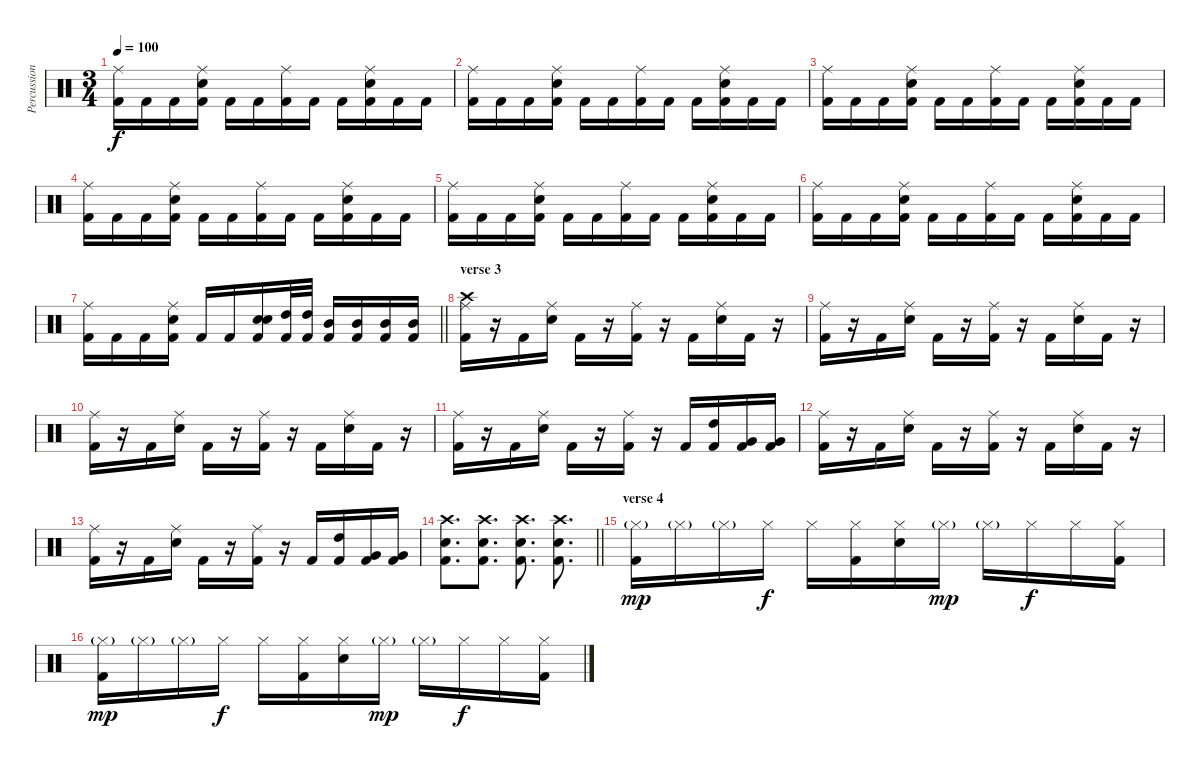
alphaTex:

\track ("Percussions" "Percussion") {instrument percussion}
\staff {score}
\articulation defaults
\ts (3 4)
\tempo 100
\clef neutral
\ks c
("Ride (middle)" "Kick (hit) 2").16{dy f} "Kick (hit) 2".16 "Kick (hit) 2".16 ("Ride (middle)" "Electric Snare (hit)" "Kick (hit) 2").16 "Kick (hit) 2".16 "Kick (hit) 2".16 ("Ride (middle)" "Kick (hit) 2").16 "Kick (hit) 2".16 "Kick (hit) 2".16 ("Ride (middle)" "Electric Snare (hit)" "Kick (hit) 2").16 "Kick (hit) 2".16 "Kick (hit) 2".16 |
("Ride (middle)" "Kick (hit) 2").16 "Kick (hit) 2".16 "Kick (hit) 2".16 ("Ride (middle)" "Electric Snare (hit)" "Kick (hit) 2").16 "Kick (hit) 2".16 "Kick (hit) 2".16 ("Ride (middle)" "Kick (hit) 2").16 "Kick (hit) 2".16 "Kick (hit) 2".16 ("Ride (middle)" "Electric Snare (hit)" "Kick (hit) 2").16 "Kick (hit) 2".16 "Kick (hit) 2".16 |
("Ride (middle)" "Kick (hit) 2").16 "Kick (hit) 2".16 "Kick (hit) 2".16 ("Ride (middle)" "Electric Snare (hit)" "Kick (hit) 2").16 "Kick (hit) 2".16 "Kick (hit) 2".16 ("Ride (middle)" "Kick (hit) 2").16 "Kick (hit) 2".16 "Kick (hit) 2".16 ("Ride (middle)" "Electric Snare (hit)" "Kick (hit) 2").16 "Kick (hit) 2".16 "Kick (hit) 2".16 |
("Ride (middle)" "Kick (hit) 2").16 "Kick (hit) 2".16 "Kick (hit) 2".16 ("Ride (middle)" "Electric Snare (hit)" "Kick (hit) 2").16 "Kick (hit) 2".16 "Kick (hit) 2".16 ("Ride (middle)" "Kick (hit) 2").16 "Kick (hit) 2".16 "Kick (hit) 2".16 ("Ride (middle)" "Electric Snare (hit)" "Kick (hit) 2").16 "Kick (hit) 2".16 "Kick (hit) 2".16 |
("Ride (middle)" "Kick (hit) 2").16 "Kick (hit) 2".16 "Kick (hit) 2".16 ("Ride (middle)" "Electric Snare (hit)" "Kick (hit) 2").16 "Kick (hit) 2".16 "Kick (hit) 2".16 ("Ride (middle)" "Kick (hit) 2").16 "Kick (hit) 2".16 "Kick (hit) 2".16 ("Ride (middle)" "Electric Snare (hit)" "Kick (hit) 2").16 "Kick (hit) 2".16 "Kick (hit) 2".16 |
("Ride (middle)" "Kick (hit) 2").16 "Kick (hit) 2".16 "Kick (hit) 2".16 ("Ride (middle)" "Electric Snare (hit)" "Kick (hit) 2").16 "Kick (hit) 2".16 "Kick (hit) 2".16 ("Ride (middle)" "Kick (hit) 2").16 "Kick (hit) 2".16 "Kick (hit) 2".16 ("Ride (middle)" "Electric Snare (hit)" "Kick (hit) 2").16 "Kick (hit) 2".16 "Kick (hit) 2".16 |
\barLineRight lightlight
("Ride (middle)" "Kick (hit) 2").16 "Kick (hit) 2".16 "Kick (hit) 2".16 ("Ride (middle)" "Electric Snare (hit)" "Kick (hit) 2").16 "Kick (hit) 2".16 "Kick (hit) 2".16 ("Electric Snare (hit)" "Electric Snare (hit)" "Kick (hit) 2").16 ("High Tom (hit)" "Kick (hit) 2").32 ("High Tom (hit)" "Kick (hit) 2").32 ("Mid Tom (hit)" "Kick (hit) 2").16 ("Mid Tom (hit)" "Kick (hit) 2").16 ("Mid Tom (hit)" "Kick (hit) 2").16 ("Mid Tom (hit)" "Kick (hit) 2").16 |
\section ("" "verse 3")
("Crash high (hit)" "Ride (middle)" "Kick (hit) 2").16 r.16 "Kick (hit) 2".16 ("Ride (middle)" "Electric Snare (hit)").16 "Kick (hit) 2".16 r.16 ("Ride (middle)" "Kick (hit) 2").16 r.16 "Kick (hit) 2".16 ("Ride (middle)" "Electric Snare (hit)").16 "Kick (hit) 2".16 r.16 |
("Ride (middle)" "Kick (hit) 2").16 r.16 "Kick (hit) 2".16 ("Ride (middle)" "Electric Snare (hit)").16 "Kick (hit) 2".16 r.16 ("Ride (middle)" "Kick (hit) 2").16 r.16 "Kick (hit) 2".16 ("Ride (middle)" "Electric Snare (hit)").16 "Kick (hit) 2".16 r.16 |
("Ride (middle)" "Kick (hit) 2").16 r.16 "Kick (hit) 2".16 ("Ride (middle)" "Electric Snare (hit)").16 "Kick (hit) 2".16 r.16 ("Ride (middle)" "Kick (hit) 2").16 r.16 "Kick (hit) 2".16 ("Ride (middle)" "Electric Snare (hit)").16 "Kick (hit) 2".16 r.16 |
("Ride (middle)" "Kick (hit) 2").16 r.16 "Kick (hit) 2".16 ("Ride (middle)" "Electric Snare (hit)").16 "Kick (hit) 2".16 r.16 ("Ride (middle)" "Kick (hit) 2").16 r.16 "Kick (hit) 2".16 ("High Tom (hit)" "Kick (hit) 2").16 ("Very Low Tom (hit)" "Kick (hit) 2").16 ("Very Low Tom (hit)" "Kick (hit) 2").16 |
("Ride (middle)" "Kick (hit) 2").16 r.16 "Kick (hit) 2".16 ("Ride (middle)" "Electric Snare (hit)").16 "Kick (hit) 2".16 r.16 ("Ride (middle)" "Kick (hit) 2").16 r.16 "Kick (hit) 2".16 ("Ride (middle)" "Electric Snare (hit)").16 "Kick (hit) 2".16 r.16 |
("Ride (middle)" "Kick (hit) 2").16 r.16 "Kick (hit) 2".16 ("Ride (middle)" "Electric Snare (hit)").16 "Kick (hit) 2".16 r.16 ("Ride (middle)" "Kick (hit) 2").16 r.16 "Kick (hit) 2".16 ("High Tom (hit)" "Kick (hit) 2").16 ("Very Low Tom (hit)" "Kick (hit) 2").16 ("Very Low Tom (hit)" "Kick (hit) 2").16 |
\barLineRight lightlight
("Crash high (hit)" "Electric Snare (hit)" "Kick (hit) 2").8{d} ("Crash high (hit)" "Electric Snare (hit)" "Kick (hit) 2").8{d} ("Crash high (hit)" "Electric Snare (hit)" "Kick (hit) 2").8{d} ("Crash high (hit)" "Electric Snare (hit)" "Kick (hit) 2").8{d} |
\section ("" "verse 4")
("Hi-Hat (closed)"{g} "Kick (hit) 2").16{dy mp} "Hi-Hat (closed)"{g}.16 "Hi-Hat (closed)"{g}.16 "Hi-Hat (closed)".16{dy f} "Hi-Hat (closed)".16 ("Hi-Hat (closed)" "Kick (hit) 2").16 ("Hi-Hat (closed)" "Electric Snare (hit)").16 "Hi-Hat (closed)"{g}.16{dy mp} "Hi-Hat (closed)"{g}.16 "Hi-Hat (closed)".16{dy f} "Hi-Hat (closed)".16 ("Hi-Hat (closed)" "Kick (hit) 2").16 |
("Hi-Hat (closed)"{g} "Kick (hit) 2").16{dy mp} "Hi-Hat (closed)"{g}.16 "Hi-Hat (closed)"{g}.16 "Hi-Hat (closed)".16{dy f} "Hi-Hat (closed)".16 ("Hi-Hat (closed)" "Kick (hit) 2").16 ("Hi-Hat (closed)" "Electric Snare (hit)").16 "Hi-Hat (closed)"{g}.16{dy mp} "Hi-Hat (closed)"{g}.16 "Hi-Hat (closed)".16{dy f} "Hi-Hat (closed)".16 ("Hi-Hat (closed)" "Kick (hit) 2").16
